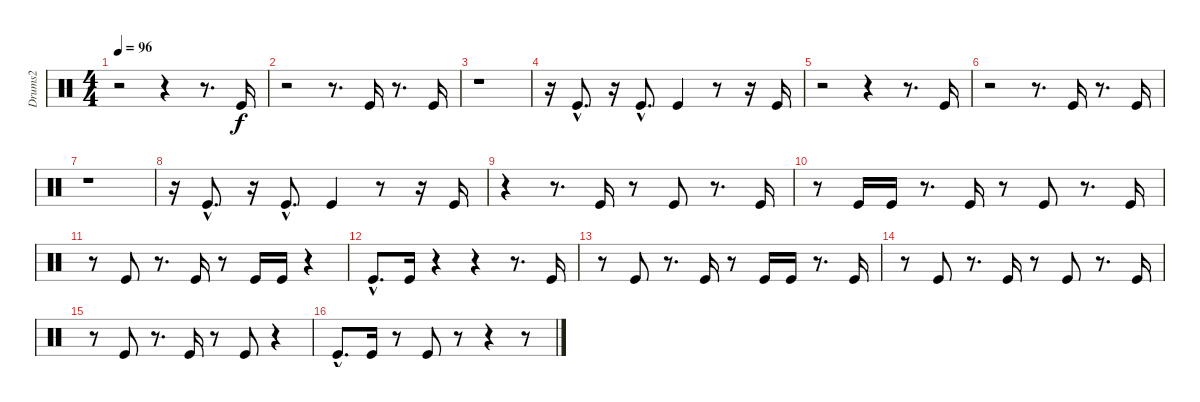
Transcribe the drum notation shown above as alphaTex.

\track ("Drums2" "Drums2") {instrument percussion}
\staff {score}
\articulation defaults
\ts (4 4)
\tempo 96
\clef neutral
\ks c
r.2{dy f} r.4 r.8{d} "Kick (hit)".16 |
r.2 r.8{d} "Kick (hit)".16 r.8{d} "Kick (hit)".16 |
r.1 |
r.16 "Kick (hit)"{hac}.8{d} r.16 "Kick (hit)"{hac}.8{d} "Kick (hit)".4 r.8 r.16 "Kick (hit)".16 |
r.2 r.4 r.8{d} "Kick (hit)".16 |
r.2 r.8{d} "Kick (hit)".16 r.8{d} "Kick (hit)".16 |
r.1 |
r.16 "Kick (hit)"{hac}.8{d} r.16 "Kick (hit)"{hac}.8{d} "Kick (hit)".4 r.8 r.16 "Kick (hit)".16 |
r.4 r.8{d} "Kick (hit)".16 r.8 "Kick (hit)".8 r.8{d} "Kick (hit)".16 |
r.8 "Kick (hit)".16 "Kick (hit)".16 r.8{d} "Kick (hit)".16 r.8 "Kick (hit)".8 r.8{d} "Kick (hit)".16 |
r.8 "Kick (hit)".8 r.8{d} "Kick (hit)".16 r.8 "Kick (hit)".16 "Kick (hit)".16 r.4 |
"Kick (hit)"{hac}.8{d} "Kick (hit)".16 r.4 r.4 r.8{d} "Kick (hit)".16 |
r.8 "Kick (hit)".8 r.8{d} "Kick (hit)".16 r.8 "Kick (hit)".16 "Kick (hit)".16 r.8{d} "Kick (hit)".16 |
r.8 "Kick (hit)".8 r.8{d} "Kick (hit)".16 r.8 "Kick (hit)".8 r.8{d} "Kick (hit)".16 |
r.8 "Kick (hit)".8 r.8{d} "Kick (hit)".16 r.8 "Kick (hit)".8 r.4 |
"Kick (hit)"{hac}.8{d} "Kick (hit)".16 r.8 "Kick (hit)".8 r.8 r.4 r.8
